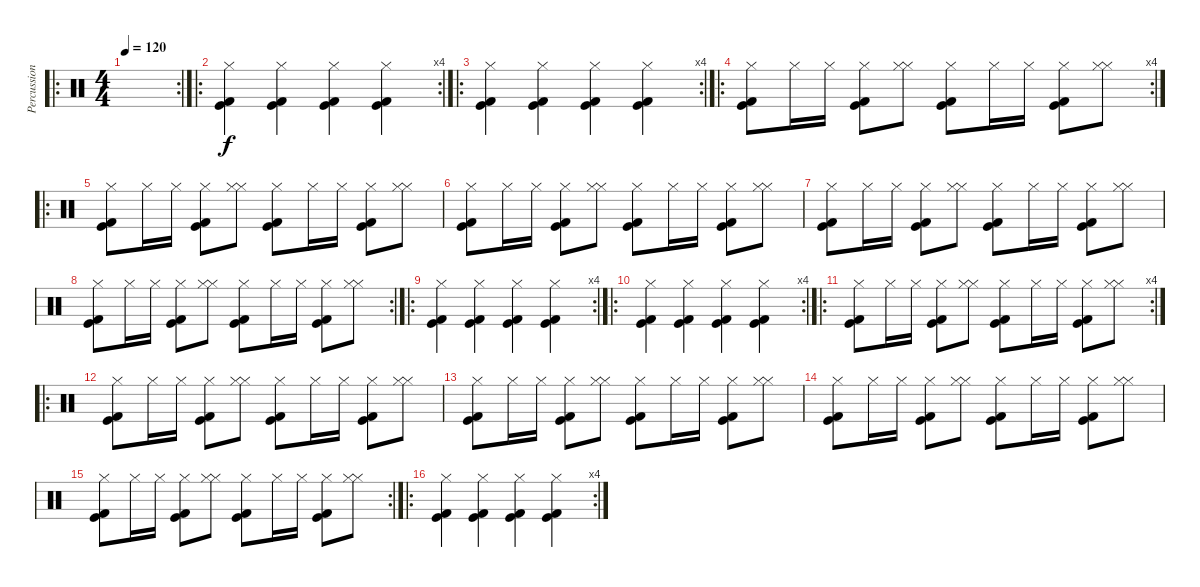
\track ("Percussions" "Percussion") {instrument percussion}
\staff {score}
\articulation defaults
\ro
\rc 2
\ts (4 4)
\tempo 120
\clef neutral
\ks c
|
\ro
\rc 4
("Kick (hit) 2" "Kick (hit)" "Hi-Hat (closed)").4 ("Kick (hit) 2" "Kick (hit)" "Hi-Hat (closed)").4 ("Kick (hit) 2" "Kick (hit)" "Hi-Hat (closed)").4 ("Kick (hit) 2" "Kick (hit)" "Hi-Hat (closed)").4 |
\ro
\rc 4
("Kick (hit) 2" "Kick (hit)" "Hi-Hat (closed)").4 ("Kick (hit) 2" "Kick (hit)" "Hi-Hat (closed)").4 ("Kick (hit) 2" "Kick (hit)" "Hi-Hat (closed)").4 ("Kick (hit) 2" "Kick (hit)" "Hi-Hat (closed)").4 |
\ro
\rc 4
("Kick (hit) 2" "Kick (hit)" "Hi-Hat (closed)").8 "Hi-Hat (closed)".16 "Hi-Hat (closed)".16 ("Kick (hit) 2" "Kick (hit)" "Hi-Hat (closed)").8 ("Hi-Hat (closed)" "Hi-Hat (closed)").8 ("Kick (hit) 2" "Kick (hit)" "Hi-Hat (closed)").8 "Hi-Hat (closed)".16 "Hi-Hat (closed)".16 ("Kick (hit) 2" "Kick (hit)" "Hi-Hat (closed)").8 ("Hi-Hat (closed)" "Hi-Hat (closed)").8 |
\ro
("Kick (hit) 2" "Kick (hit)" "Hi-Hat (closed)").8 "Hi-Hat (closed)".16 "Hi-Hat (closed)".16 ("Kick (hit) 2" "Kick (hit)" "Hi-Hat (closed)").8 ("Hi-Hat (closed)" "Hi-Hat (closed)").8 ("Kick (hit) 2" "Kick (hit)" "Hi-Hat (closed)").8 "Hi-Hat (closed)".16 "Hi-Hat (closed)".16 ("Kick (hit) 2" "Kick (hit)" "Hi-Hat (closed)").8 ("Hi-Hat (closed)" "Hi-Hat (closed)").8 |
("Kick (hit) 2" "Kick (hit)" "Hi-Hat (closed)").8 "Hi-Hat (closed)".16 "Hi-Hat (closed)".16 ("Kick (hit) 2" "Kick (hit)" "Hi-Hat (closed)").8 ("Hi-Hat (closed)" "Hi-Hat (closed)").8 ("Kick (hit) 2" "Kick (hit)" "Hi-Hat (closed)").8 "Hi-Hat (closed)".16 "Hi-Hat (closed)".16 ("Kick (hit) 2" "Kick (hit)" "Hi-Hat (closed)").8 ("Hi-Hat (closed)" "Hi-Hat (closed)").8 |
("Kick (hit) 2" "Kick (hit)" "Hi-Hat (closed)").8 "Hi-Hat (closed)".16 "Hi-Hat (closed)".16 ("Kick (hit) 2" "Kick (hit)" "Hi-Hat (closed)").8 ("Hi-Hat (closed)" "Hi-Hat (closed)").8 ("Kick (hit) 2" "Kick (hit)" "Hi-Hat (closed)").8 "Hi-Hat (closed)".16 "Hi-Hat (closed)".16 ("Kick (hit) 2" "Kick (hit)" "Hi-Hat (closed)").8 ("Hi-Hat (closed)" "Hi-Hat (closed)").8 |
\rc 2
("Kick (hit) 2" "Kick (hit)" "Hi-Hat (closed)").8 "Hi-Hat (closed)".16 "Hi-Hat (closed)".16 ("Kick (hit) 2" "Kick (hit)" "Hi-Hat (closed)").8 ("Hi-Hat (closed)" "Hi-Hat (closed)").8 ("Kick (hit) 2" "Kick (hit)" "Hi-Hat (closed)").8 "Hi-Hat (closed)".16 "Hi-Hat (closed)".16 ("Kick (hit) 2" "Kick (hit)" "Hi-Hat (closed)").8 ("Hi-Hat (closed)" "Hi-Hat (closed)").8 |
\ro
\rc 4
("Kick (hit) 2" "Kick (hit)" "Hi-Hat (closed)").4 ("Kick (hit) 2" "Kick (hit)" "Hi-Hat (closed)").4 ("Kick (hit) 2" "Kick (hit)" "Hi-Hat (closed)").4 ("Kick (hit) 2" "Kick (hit)" "Hi-Hat (closed)").4 |
\ro
\rc 4
("Kick (hit) 2" "Kick (hit)" "Hi-Hat (closed)").4 ("Kick (hit) 2" "Kick (hit)" "Hi-Hat (closed)").4 ("Kick (hit) 2" "Kick (hit)" "Hi-Hat (closed)").4 ("Kick (hit) 2" "Kick (hit)" "Hi-Hat (closed)").4 |
\ro
\rc 4
("Kick (hit) 2" "Kick (hit)" "Hi-Hat (closed)").8 "Hi-Hat (closed)".16 "Hi-Hat (closed)".16 ("Kick (hit) 2" "Kick (hit)" "Hi-Hat (closed)").8 ("Hi-Hat (closed)" "Hi-Hat (closed)").8 ("Kick (hit) 2" "Kick (hit)" "Hi-Hat (closed)").8 "Hi-Hat (closed)".16 "Hi-Hat (closed)".16 ("Kick (hit) 2" "Kick (hit)" "Hi-Hat (closed)").8 ("Hi-Hat (closed)" "Hi-Hat (closed)").8 |
\ro
("Kick (hit) 2" "Kick (hit)" "Hi-Hat (closed)").8 "Hi-Hat (closed)".16 "Hi-Hat (closed)".16 ("Kick (hit) 2" "Kick (hit)" "Hi-Hat (closed)").8 ("Hi-Hat (closed)" "Hi-Hat (closed)").8 ("Kick (hit) 2" "Kick (hit)" "Hi-Hat (closed)").8 "Hi-Hat (closed)".16 "Hi-Hat (closed)".16 ("Kick (hit) 2" "Kick (hit)" "Hi-Hat (closed)").8 ("Hi-Hat (closed)" "Hi-Hat (closed)").8 |
("Kick (hit) 2" "Kick (hit)" "Hi-Hat (closed)").8 "Hi-Hat (closed)".16 "Hi-Hat (closed)".16 ("Kick (hit) 2" "Kick (hit)" "Hi-Hat (closed)").8 ("Hi-Hat (closed)" "Hi-Hat (closed)").8 ("Kick (hit) 2" "Kick (hit)" "Hi-Hat (closed)").8 "Hi-Hat (closed)".16 "Hi-Hat (closed)".16 ("Kick (hit) 2" "Kick (hit)" "Hi-Hat (closed)").8 ("Hi-Hat (closed)" "Hi-Hat (closed)").8 |
("Kick (hit) 2" "Kick (hit)" "Hi-Hat (closed)").8 "Hi-Hat (closed)".16 "Hi-Hat (closed)".16 ("Kick (hit) 2" "Kick (hit)" "Hi-Hat (closed)").8 ("Hi-Hat (closed)" "Hi-Hat (closed)").8 ("Kick (hit) 2" "Kick (hit)" "Hi-Hat (closed)").8 "Hi-Hat (closed)".16 "Hi-Hat (closed)".16 ("Kick (hit) 2" "Kick (hit)" "Hi-Hat (closed)").8 ("Hi-Hat (closed)" "Hi-Hat (closed)").8 |
\rc 2
("Kick (hit) 2" "Kick (hit)" "Hi-Hat (closed)").8 "Hi-Hat (closed)".16 "Hi-Hat (closed)".16 ("Kick (hit) 2" "Kick (hit)" "Hi-Hat (closed)").8 ("Hi-Hat (closed)" "Hi-Hat (closed)").8 ("Kick (hit) 2" "Kick (hit)" "Hi-Hat (closed)").8 "Hi-Hat (closed)".16 "Hi-Hat (closed)".16 ("Kick (hit) 2" "Kick (hit)" "Hi-Hat (closed)").8 ("Hi-Hat (closed)" "Hi-Hat (closed)").8 |
\ro
\rc 4
("Kick (hit) 2" "Kick (hit)" "Hi-Hat (closed)").4 ("Kick (hit) 2" "Kick (hit)" "Hi-Hat (closed)").4 ("Kick (hit) 2" "Kick (hit)" "Hi-Hat (closed)").4 ("Kick (hit) 2" "Kick (hit)" "Hi-Hat (closed)").4
